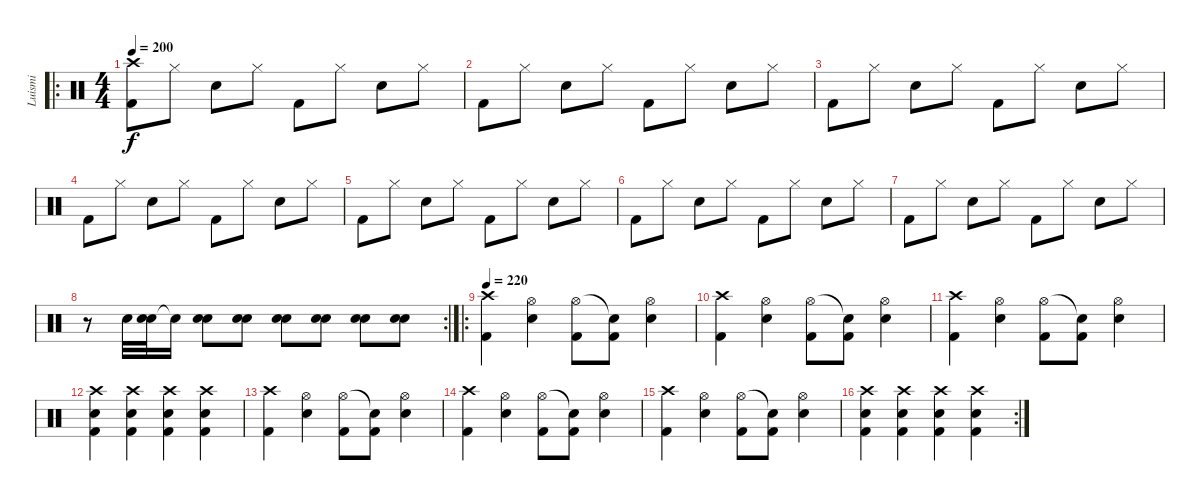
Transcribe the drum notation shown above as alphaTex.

\track ("Luismi" "Luismi") {instrument percussion}
\staff {score}
\articulation defaults
\ro
\ts (4 4)
\tempo 200
\clef neutral
\ks c
("Crash high (hit)" "Kick (hit) 2").8{dy f} "Hi-Hat (closed)".8 "Snare (hit) 2".8 "Hi-Hat (closed)".8 "Kick (hit) 2".8 "Hi-Hat (closed)".8 "Snare (hit) 2".8 "Hi-Hat (closed)".8 |
"Kick (hit) 2".8 "Hi-Hat (closed)".8 "Snare (hit) 2".8 "Hi-Hat (closed)".8 "Kick (hit) 2".8 "Hi-Hat (closed)".8 "Snare (hit) 2".8 "Hi-Hat (closed)".8 |
"Kick (hit) 2".8 "Hi-Hat (closed)".8 "Snare (hit) 2".8 "Hi-Hat (closed)".8 "Kick (hit) 2".8 "Hi-Hat (closed)".8 "Snare (hit) 2".8 "Hi-Hat (closed)".8 |
"Kick (hit) 2".8 "Hi-Hat (closed)".8 "Snare (hit) 2".8 "Hi-Hat (closed)".8 "Kick (hit) 2".8 "Hi-Hat (closed)".8 "Snare (hit) 2".8 "Hi-Hat (closed)".8 |
"Kick (hit) 2".8 "Hi-Hat (closed)".8 "Snare (hit) 2".8 "Hi-Hat (closed)".8 "Kick (hit) 2".8 "Hi-Hat (closed)".8 "Snare (hit) 2".8 "Hi-Hat (closed)".8 |
"Kick (hit) 2".8 "Hi-Hat (closed)".8 "Snare (hit) 2".8 "Hi-Hat (closed)".8 "Kick (hit) 2".8 "Hi-Hat (closed)".8 "Snare (hit) 2".8 "Hi-Hat (closed)".8 |
"Kick (hit) 2".8 "Hi-Hat (closed)".8 "Snare (hit) 2".8 "Hi-Hat (closed)".8 "Kick (hit) 2".8 "Hi-Hat (closed)".8 "Snare (hit) 2".8 "Hi-Hat (closed)".8 |
\rc 2
r.8 "Snare (hit) 2".32 ("Electric Snare (hit)" "Snare (hit) 2").32 "Snare (hit)"{t}.16 ("Electric Snare (hit)" "Snare (hit) 2").8 ("Electric Snare (hit)" "Snare (hit) 2").8 ("Electric Snare (hit)" "Snare (hit) 2").8 ("Electric Snare (hit)" "Snare (hit) 2").8 ("Electric Snare (hit)" "Snare (hit) 2").8 ("Electric Snare (hit)" "Snare (hit) 2").8 |
\ro
\tempo 220
("Crash high (hit)" "Kick (hit) 2").4 ("Hi-Hat (open)" "Snare (hit) 2").4 ("Hi-Hat (open)" "Kick (hit) 2").8 ("Snare (hit)"{t} "Kick (hit) 2").8 ("Hi-Hat (open)" "Snare (hit) 2").4 |
("Crash high (hit)" "Kick (hit) 2").4 ("Hi-Hat (open)" "Snare (hit) 2").4 ("Hi-Hat (open)" "Kick (hit) 2").8 ("Snare (hit)"{t} "Kick (hit) 2").8 ("Hi-Hat (open)" "Snare (hit) 2").4 |
("Crash high (hit)" "Kick (hit) 2").4 ("Hi-Hat (open)" "Snare (hit) 2").4 ("Hi-Hat (open)" "Kick (hit) 2").8 ("Snare (hit)"{t} "Kick (hit) 2").8 ("Hi-Hat (open)" "Snare (hit) 2").4 |
("Crash high (hit)" "Snare (hit) 2" "Kick (hit) 2").4 ("Crash high (hit)" "Snare (hit) 2" "Kick (hit) 2").4 ("Crash high (hit)" "Snare (hit) 2" "Kick (hit) 2").4 ("Crash high (hit)" "Snare (hit) 2" "Kick (hit) 2").4 |
("Crash high (hit)" "Kick (hit) 2").4 ("Hi-Hat (open)" "Snare (hit) 2").4 ("Hi-Hat (open)" "Kick (hit) 2").8 ("Snare (hit)"{t} "Kick (hit) 2").8 ("Hi-Hat (open)" "Snare (hit) 2").4 |
("Crash high (hit)" "Kick (hit) 2").4 ("Hi-Hat (open)" "Snare (hit) 2").4 ("Hi-Hat (open)" "Kick (hit) 2").8 ("Snare (hit)"{t} "Kick (hit) 2").8 ("Hi-Hat (open)" "Snare (hit) 2").4 |
("Crash high (hit)" "Kick (hit) 2").4 ("Hi-Hat (open)" "Snare (hit) 2").4 ("Hi-Hat (open)" "Kick (hit) 2").8 ("Snare (hit)"{t} "Kick (hit) 2").8 ("Hi-Hat (open)" "Snare (hit) 2").4 |
\rc 2
("Crash high (hit)" "Snare (hit) 2" "Kick (hit) 2").4 ("Crash high (hit)" "Snare (hit) 2" "Kick (hit) 2").4 ("Crash high (hit)" "Snare (hit) 2" "Kick (hit) 2").4 ("Crash high (hit)" "Snare (hit) 2" "Kick (hit) 2").4
